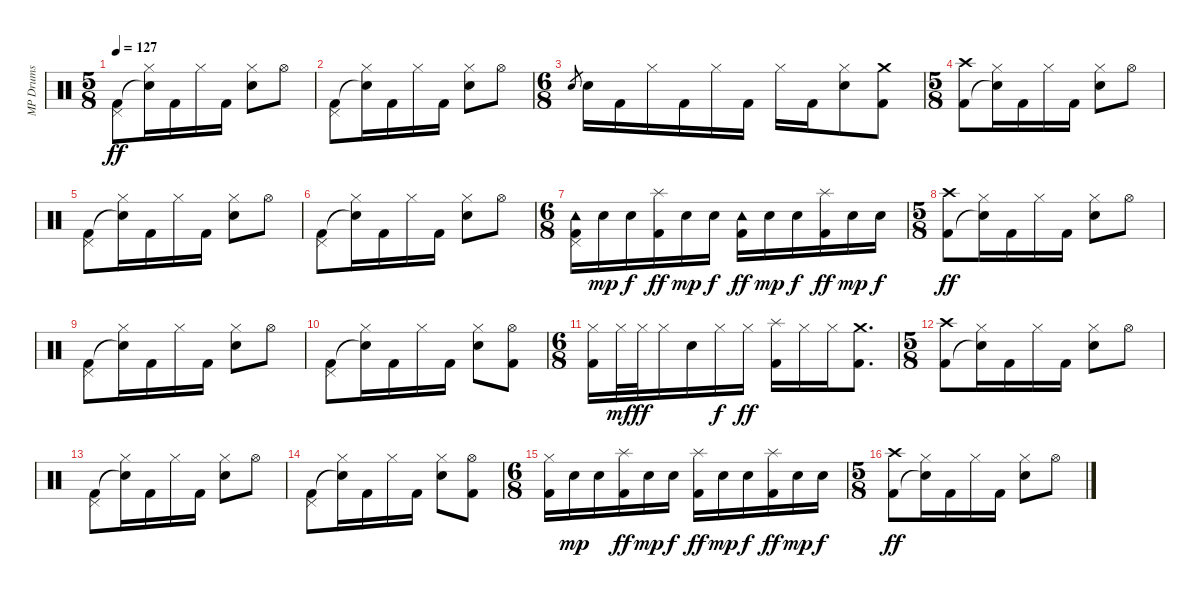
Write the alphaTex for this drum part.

\track ("MP Drums" "MP Drums") {instrument percussion}
\staff {score}
\articulation defaults
\ts (5 8)
\tempo 127
\clef neutral
\ks c
("Pedal Hi-Hat (hit)" "Kick (hit) 2").8{dy ff} ("Hi-Hat (closed)" "Snare (hit)"{t}).16 "Kick (hit) 2".16 "Hi-Hat (closed)".16 "Kick (hit) 2".16 ("Hi-Hat (closed)" "Snare (hit) 2").8 "Hi-Hat (open)".8 |
("Pedal Hi-Hat (hit)" "Kick (hit) 2").8 ("Hi-Hat (closed)" "Snare (hit)"{t}).16 "Kick (hit) 2".16 "Hi-Hat (closed)".16 "Kick (hit) 2".16 ("Hi-Hat (closed)" "Snare (hit) 2").8 "Hi-Hat (open)".8 |
\ts (6 8)
"Snare (hit) 2".8{gr} "Snare (hit) 2".16 "Kick (hit) 2".16 "Hi-Hat (closed)".16 "Kick (hit) 2".16 "Hi-Hat (closed)".16 "Kick (hit) 2".16 "Hi-Hat (closed)".16 "Kick (hit) 2".16 ("Hi-Hat (closed)" "Snare (hit) 2").8 ("Crash medium (hit)" "Kick (hit) 2").8 |
\ts (5 8)
("Crash high (hit)" "Kick (hit) 2").8 ("Hi-Hat (closed)" "Snare (hit)"{t}).16 "Kick (hit) 2".16 "Hi-Hat (closed)".16 "Kick (hit) 2".16 ("Hi-Hat (closed)" "Snare (hit) 2").8 "Hi-Hat (open)".8 |
("Pedal Hi-Hat (hit)" "Kick (hit) 2").8 ("Hi-Hat (closed)" "Snare (hit)"{t}).16 "Kick (hit) 2".16 "Hi-Hat (closed)".16 "Kick (hit) 2".16 ("Hi-Hat (closed)" "Snare (hit) 2").8 "Hi-Hat (open)".8 |
("Pedal Hi-Hat (hit)" "Kick (hit) 2").8 ("Hi-Hat (closed)" "Snare (hit)"{t}).16 "Kick (hit) 2".16 "Hi-Hat (closed)".16 "Kick (hit) 2".16 ("Hi-Hat (closed)" "Snare (hit) 2").8 "Hi-Hat (open)".8 |
\ts (6 8)
("Tambourine (hit)" "Pedal Hi-Hat (hit)" "Kick (hit) 2").16 "Snare (hit) 2".16{dy mp} "Snare (hit) 2".16{dy f} ("Splash (hit)" "Kick (hit) 2").16{dy ff} "Snare (hit) 2".16{dy mp} "Snare (hit) 2".16{dy f} ("Tambourine (hit)" "Kick (hit) 2").16{dy ff} "Snare (hit) 2".16{dy mp} "Snare (hit) 2".16{dy f} ("Splash (hit)" "Kick (hit) 2").16{dy ff} "Snare (hit) 2".16{dy mp} "Snare (hit) 2".16{dy f} |
\ts (5 8)
("Crash high (hit)" "Kick (hit) 2").8{dy ff} ("Hi-Hat (closed)" "Snare (hit)"{t}).16 "Kick (hit) 2".16 "Hi-Hat (closed)".16 "Kick (hit) 2".16 ("Hi-Hat (closed)" "Snare (hit) 2").8 "Hi-Hat (open)".8 |
("Pedal Hi-Hat (hit)" "Kick (hit) 2").8 ("Hi-Hat (closed)" "Snare (hit)"{t}).16 "Kick (hit) 2".16 "Hi-Hat (closed)".16 "Kick (hit) 2".16 ("Hi-Hat (closed)" "Snare (hit) 2").8 "Hi-Hat (open)".8 |
("Pedal Hi-Hat (hit)" "Kick (hit) 2").8 ("Hi-Hat (closed)" "Snare (hit)"{t}).16 "Kick (hit) 2".16 "Hi-Hat (closed)".16 "Kick (hit) 2".16 ("Hi-Hat (closed)" "Snare (hit) 2").8 ("Hi-Hat (open)" "Kick (hit) 2").8 |
\ts (6 8)
("Hi-Hat (closed)" "Kick (hit) 2").16 "Hi-Hat (closed)".32{dy mf} "Hi-Hat (closed)".32{dy ff} "Hi-Hat (closed)".16 "Snare (hit) 2".16 "Hi-Hat (closed)".16{dy f} "Hi-Hat (closed)".16{dy ff} ("Splash (hit)" "Kick (hit) 2").16 "Hi-Hat (closed)".16 "Hi-Hat (closed)".16 ("Crash medium (hit)" "Kick (hit) 2").8{d} |
\ts (5 8)
("Crash high (hit)" "Kick (hit) 2").8 ("Hi-Hat (closed)" "Snare (hit)"{t}).16 "Kick (hit) 2".16 "Hi-Hat (closed)".16 "Kick (hit) 2".16 ("Hi-Hat (closed)" "Snare (hit) 2").8 "Hi-Hat (open)".8 |
("Pedal Hi-Hat (hit)" "Kick (hit) 2").8 ("Hi-Hat (closed)" "Snare (hit)"{t}).16 "Kick (hit) 2".16 "Hi-Hat (closed)".16 "Kick (hit) 2".16 ("Hi-Hat (closed)" "Snare (hit) 2").8 "Hi-Hat (open)".8 |
("Pedal Hi-Hat (hit)" "Kick (hit) 2").8 ("Hi-Hat (closed)" "Snare (hit)"{t}).16 "Kick (hit) 2".16 "Hi-Hat (closed)".16 "Kick (hit) 2".16 ("Hi-Hat (closed)" "Snare (hit) 2").8 ("Hi-Hat (open)" "Kick (hit) 2").8 |
\ts (6 8)
("Hi-Hat (closed)" "Kick (hit) 2").16 "Snare (hit) 2".16{dy mp} "Snare (hit) 2".16 ("Splash (hit)" "Kick (hit) 2").16{dy ff} "Snare (hit) 2".16{dy mp} "Snare (hit) 2".16{dy f} ("Splash (hit)" "Kick (hit) 2").16{dy ff} "Snare (hit) 2".16{dy mp} "Snare (hit) 2".16{dy f} ("Splash (hit)" "Kick (hit) 2").16{dy ff} "Snare (hit) 2".16{dy mp} "Snare (hit) 2".16{dy f} |
\ts (5 8)
("Crash high (hit)" "Kick (hit) 2").8{dy ff} ("Hi-Hat (closed)" "Snare (hit)"{t}).16 "Kick (hit) 2".16 "Hi-Hat (closed)".16 "Kick (hit) 2".16 ("Hi-Hat (closed)" "Snare (hit) 2").8 "Hi-Hat (open)".8
